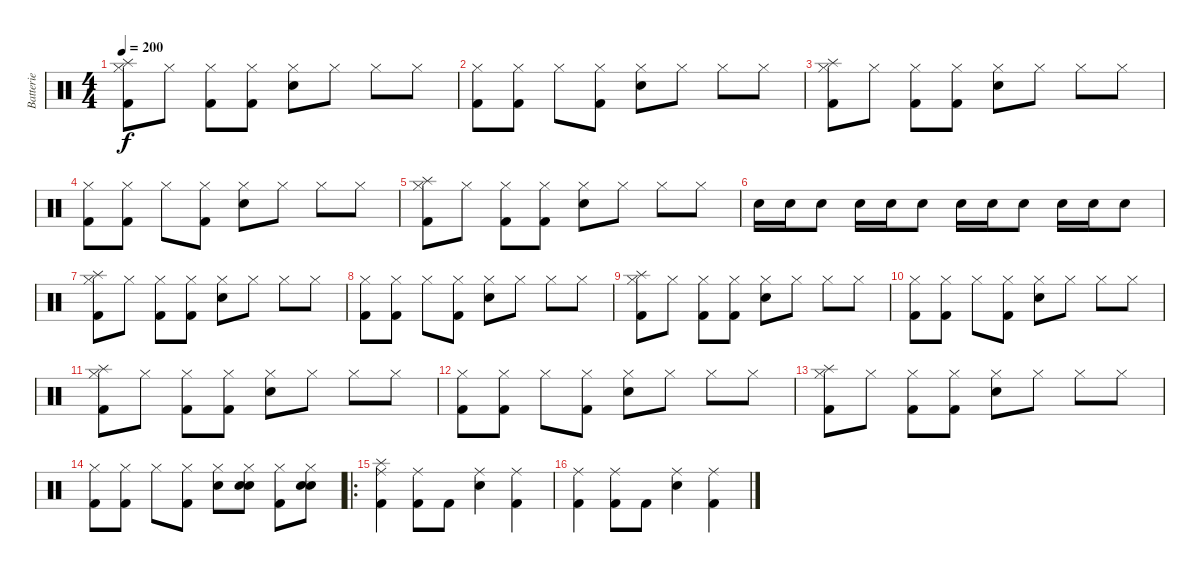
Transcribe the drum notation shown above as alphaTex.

\track ("Batterie" "Batterie") {instrument percussion}
\staff {score}
\articulation defaults
\ts (4 4)
\tempo 200
\clef neutral
\ks c
("Splash (hit)" "Hi-Hat (closed)" "Kick (hit) 2").8{dy f} "Hi-Hat (closed)".8 ("Hi-Hat (closed)" "Kick (hit) 2").8 ("Hi-Hat (closed)" "Kick (hit) 2").8 ("Hi-Hat (closed)" "Snare (hit) 2").8 "Hi-Hat (closed)".8 "Hi-Hat (closed)".8 "Hi-Hat (closed)".8 |
("Hi-Hat (closed)" "Kick (hit) 2").8 ("Hi-Hat (closed)" "Kick (hit) 2").8 "Hi-Hat (closed)".8 ("Hi-Hat (closed)" "Kick (hit) 2").8 ("Hi-Hat (closed)" "Snare (hit) 2").8 "Hi-Hat (closed)".8 "Hi-Hat (closed)".8 "Hi-Hat (closed)".8 |
("Splash (hit)" "Hi-Hat (closed)" "Kick (hit) 2").8 "Hi-Hat (closed)".8 ("Hi-Hat (closed)" "Kick (hit) 2").8 ("Hi-Hat (closed)" "Kick (hit) 2").8 ("Hi-Hat (closed)" "Snare (hit) 2").8 "Hi-Hat (closed)".8 "Hi-Hat (closed)".8 "Hi-Hat (closed)".8 |
("Hi-Hat (closed)" "Kick (hit) 2").8 ("Hi-Hat (closed)" "Kick (hit) 2").8 "Hi-Hat (closed)".8 ("Hi-Hat (closed)" "Kick (hit) 2").8 ("Hi-Hat (closed)" "Snare (hit) 2").8 "Hi-Hat (closed)".8 "Hi-Hat (closed)".8 "Hi-Hat (closed)".8 |
("Splash (hit)" "Hi-Hat (closed)" "Kick (hit) 2").8 "Hi-Hat (closed)".8 ("Hi-Hat (closed)" "Kick (hit) 2").8 ("Hi-Hat (closed)" "Kick (hit) 2").8 ("Hi-Hat (closed)" "Snare (hit) 2").8 "Hi-Hat (closed)".8 "Hi-Hat (closed)".8 "Hi-Hat (closed)".8 |
"Snare (hit) 2".16 "Snare (hit) 2".16 "Snare (hit) 2".8 "Snare (hit) 2".16 "Snare (hit) 2".16 "Snare (hit) 2".8 "Snare (hit) 2".16 "Snare (hit) 2".16 "Snare (hit) 2".8 "Snare (hit) 2".16 "Snare (hit) 2".16 "Snare (hit) 2".8 |
("Splash (hit)" "Hi-Hat (closed)" "Kick (hit) 2").8 "Hi-Hat (closed)".8 ("Hi-Hat (closed)" "Kick (hit) 2").8 ("Hi-Hat (closed)" "Kick (hit) 2").8 ("Hi-Hat (closed)" "Snare (hit) 2").8 "Hi-Hat (closed)".8 "Hi-Hat (closed)".8 "Hi-Hat (closed)".8 |
("Hi-Hat (closed)" "Kick (hit) 2").8 ("Hi-Hat (closed)" "Kick (hit) 2").8 "Hi-Hat (closed)".8 ("Hi-Hat (closed)" "Kick (hit) 2").8 ("Hi-Hat (closed)" "Snare (hit) 2").8 "Hi-Hat (closed)".8 "Hi-Hat (closed)".8 "Hi-Hat (closed)".8 |
("Splash (hit)" "Hi-Hat (closed)" "Kick (hit) 2").8 "Hi-Hat (closed)".8 ("Hi-Hat (closed)" "Kick (hit) 2").8 ("Hi-Hat (closed)" "Kick (hit) 2").8 ("Hi-Hat (closed)" "Snare (hit) 2").8 "Hi-Hat (closed)".8 "Hi-Hat (closed)".8 "Hi-Hat (closed)".8 |
("Hi-Hat (closed)" "Kick (hit) 2").8 ("Hi-Hat (closed)" "Kick (hit) 2").8 "Hi-Hat (closed)".8 ("Hi-Hat (closed)" "Kick (hit) 2").8 ("Hi-Hat (closed)" "Snare (hit) 2").8 "Hi-Hat (closed)".8 "Hi-Hat (closed)".8 "Hi-Hat (closed)".8 |
("Splash (hit)" "Hi-Hat (closed)" "Kick (hit) 2").8 "Hi-Hat (closed)".8 ("Hi-Hat (closed)" "Kick (hit) 2").8 ("Hi-Hat (closed)" "Kick (hit) 2").8 ("Hi-Hat (closed)" "Snare (hit) 2").8 "Hi-Hat (closed)".8 "Hi-Hat (closed)".8 "Hi-Hat (closed)".8 |
("Hi-Hat (closed)" "Kick (hit) 2").8 ("Hi-Hat (closed)" "Kick (hit) 2").8 "Hi-Hat (closed)".8 ("Hi-Hat (closed)" "Kick (hit) 2").8 ("Hi-Hat (closed)" "Snare (hit) 2").8 "Hi-Hat (closed)".8 "Hi-Hat (closed)".8 "Hi-Hat (closed)".8 |
("Splash (hit)" "Hi-Hat (closed)" "Kick (hit) 2").8 "Hi-Hat (closed)".8 ("Hi-Hat (closed)" "Kick (hit) 2").8 ("Hi-Hat (closed)" "Kick (hit) 2").8 ("Hi-Hat (closed)" "Snare (hit) 2").8 "Hi-Hat (closed)".8 "Hi-Hat (closed)".8 "Hi-Hat (closed)".8 |
("Hi-Hat (closed)" "Kick (hit) 2").8 ("Hi-Hat (closed)" "Kick (hit) 2").8 "Hi-Hat (closed)".8 ("Hi-Hat (closed)" "Kick (hit) 2").8 ("Hi-Hat (closed)" "Snare (hit) 2").8 ("Hi-Hat (closed)" "Snare (hit) 2" "Snare (hit) 2").8 ("Hi-Hat (closed)" "Kick (hit) 2").8 ("Hi-Hat (closed)" "Snare (hit) 2" "Snare (hit) 2").8 |
\ro
("Splash (hit)" "Ride (middle)" "Kick (hit) 2").4 ("Ride (middle)" "Kick (hit) 2").8 "Kick (hit) 2".8 ("Ride (middle)" "Snare (hit) 2").4 ("Ride (middle)" "Kick (hit) 2").4 |
("Ride (middle)" "Kick (hit) 2").4 ("Ride (middle)" "Kick (hit) 2").8 "Kick (hit) 2".8 ("Ride (middle)" "Snare (hit) 2").4 ("Ride (middle)" "Kick (hit) 2").4
